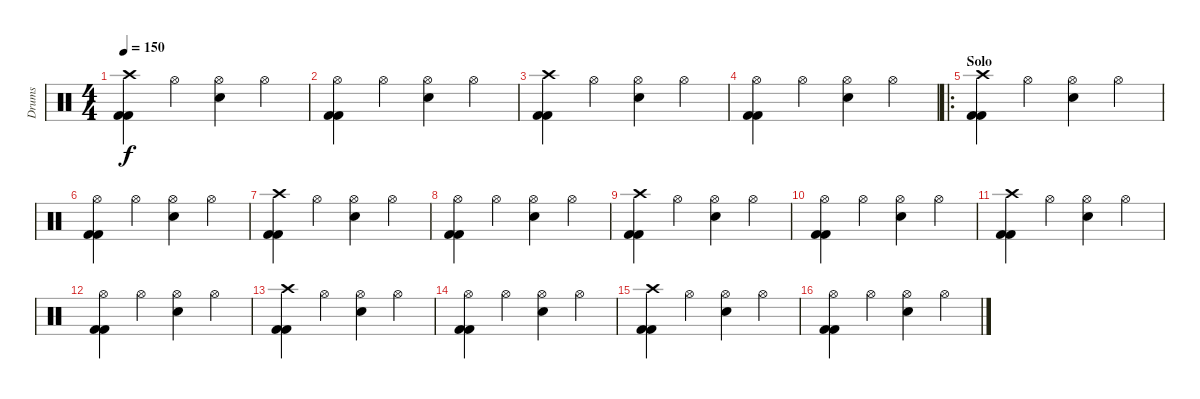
\track ("Drums" "Drums") {instrument percussion}
\staff {score}
\articulation defaults
\ts (4 4)
\tempo 150
\clef neutral
\ks c
("Crash high (hit)" "Kick (hit) 2" "Kick (hit) 2").4{dy f} "Hi-Hat (open)".4 ("Electric Snare (hit)" "Hi-Hat (open)").4 "Hi-Hat (open)".4 |
("Hi-Hat (open)" "Kick (hit) 2" "Kick (hit) 2").4 "Hi-Hat (open)".4 ("Electric Snare (hit)" "Hi-Hat (open)").4 "Hi-Hat (open)".4 |
("Crash high (hit)" "Kick (hit) 2" "Kick (hit) 2").4 "Hi-Hat (open)".4 ("Electric Snare (hit)" "Hi-Hat (open)").4 "Hi-Hat (open)".4 |
("Hi-Hat (open)" "Kick (hit) 2" "Kick (hit) 2").4 "Hi-Hat (open)".4 ("Electric Snare (hit)" "Hi-Hat (open)").4 "Hi-Hat (open)".4 |
\ro
\section ("" "Solo")
("Crash high (hit)" "Kick (hit) 2" "Kick (hit) 2").4 "Hi-Hat (open)".4 ("Electric Snare (hit)" "Hi-Hat (open)").4 "Hi-Hat (open)".4 |
("Hi-Hat (open)" "Kick (hit) 2" "Kick (hit) 2").4 "Hi-Hat (open)".4 ("Electric Snare (hit)" "Hi-Hat (open)").4 "Hi-Hat (open)".4 |
("Crash high (hit)" "Kick (hit) 2" "Kick (hit) 2").4 "Hi-Hat (open)".4 ("Electric Snare (hit)" "Hi-Hat (open)").4 "Hi-Hat (open)".4 |
("Hi-Hat (open)" "Kick (hit) 2" "Kick (hit) 2").4 "Hi-Hat (open)".4 ("Electric Snare (hit)" "Hi-Hat (open)").4 "Hi-Hat (open)".4 |
("Crash high (hit)" "Kick (hit) 2" "Kick (hit) 2").4 "Hi-Hat (open)".4 ("Electric Snare (hit)" "Hi-Hat (open)").4 "Hi-Hat (open)".4 |
("Hi-Hat (open)" "Kick (hit) 2" "Kick (hit) 2").4 "Hi-Hat (open)".4 ("Electric Snare (hit)" "Hi-Hat (open)").4 "Hi-Hat (open)".4 |
("Crash high (hit)" "Kick (hit) 2" "Kick (hit) 2").4 "Hi-Hat (open)".4 ("Electric Snare (hit)" "Hi-Hat (open)").4 "Hi-Hat (open)".4 |
("Hi-Hat (open)" "Kick (hit) 2" "Kick (hit) 2").4 "Hi-Hat (open)".4 ("Electric Snare (hit)" "Hi-Hat (open)").4 "Hi-Hat (open)".4 |
("Crash high (hit)" "Kick (hit) 2" "Kick (hit) 2").4 "Hi-Hat (open)".4 ("Electric Snare (hit)" "Hi-Hat (open)").4 "Hi-Hat (open)".4 |
("Hi-Hat (open)" "Kick (hit) 2" "Kick (hit) 2").4 "Hi-Hat (open)".4 ("Electric Snare (hit)" "Hi-Hat (open)").4 "Hi-Hat (open)".4 |
("Crash high (hit)" "Kick (hit) 2" "Kick (hit) 2").4 "Hi-Hat (open)".4 ("Electric Snare (hit)" "Hi-Hat (open)").4 "Hi-Hat (open)".4 |
("Hi-Hat (open)" "Kick (hit) 2" "Kick (hit) 2").4 "Hi-Hat (open)".4 ("Electric Snare (hit)" "Hi-Hat (open)").4 "Hi-Hat (open)".4
